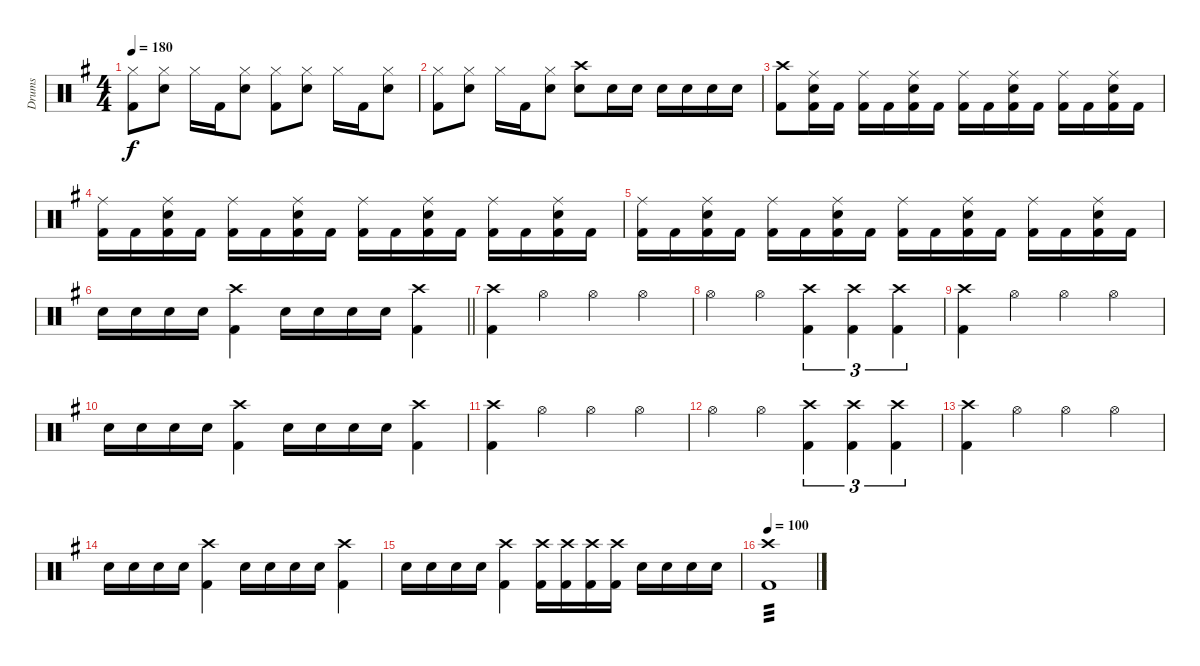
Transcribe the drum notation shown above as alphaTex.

\track ("Drums" "Drums") {instrument percussion}
\staff {score}
\articulation defaults
\ts (4 4)
\tempo 180
\clef neutral
\ks g
("Hi-Hat (closed)" "Kick (hit) 2").8{dy f} ("Hi-Hat (closed)" "Snare (hit) 2").8 "Hi-Hat (closed)".16 "Kick (hit) 2".16 ("Hi-Hat (closed)" "Snare (hit) 2").8 ("Hi-Hat (closed)" "Kick (hit) 2").8 ("Hi-Hat (closed)" "Snare (hit) 2").8 "Hi-Hat (closed)".16 "Kick (hit) 2".16 ("Hi-Hat (closed)" "Snare (hit) 2").8 |
("Hi-Hat (closed)" "Kick (hit) 2").8 ("Hi-Hat (closed)" "Snare (hit) 2").8 "Hi-Hat (closed)".16 "Kick (hit) 2".16 ("Hi-Hat (closed)" "Snare (hit) 2").8 ("Crash high (hit)" "Snare (hit) 2").8 "Snare (hit) 2".16 "Snare (hit) 2".16 "Snare (hit) 2".16 "Snare (hit) 2".16 "Snare (hit) 2".16 "Snare (hit) 2".16 |
("Crash high (hit)" "Kick (hit) 2").8 ("Ride (middle)" "Snare (hit) 2" "Kick (hit) 2").16 "Kick (hit) 2".16 ("Ride (middle)" "Kick (hit) 2").16 "Kick (hit) 2".16 ("Ride (middle)" "Snare (hit) 2" "Kick (hit) 2").16 "Kick (hit) 2".16 ("Ride (middle)" "Kick (hit) 2").16 "Kick (hit) 2".16 ("Ride (middle)" "Snare (hit) 2" "Kick (hit) 2").16 "Kick (hit) 2".16 ("Ride (middle)" "Kick (hit) 2").16 "Kick (hit) 2".16 ("Ride (middle)" "Snare (hit) 2" "Kick (hit) 2").16 "Kick (hit) 2".16 |
("Ride (middle)" "Kick (hit) 2").16 "Kick (hit) 2".16 ("Ride (middle)" "Snare (hit) 2" "Kick (hit) 2").16 "Kick (hit) 2".16 ("Ride (middle)" "Kick (hit) 2").16 "Kick (hit) 2".16 ("Ride (middle)" "Snare (hit) 2" "Kick (hit) 2").16 "Kick (hit) 2".16 ("Ride (middle)" "Kick (hit) 2").16 "Kick (hit) 2".16 ("Ride (middle)" "Snare (hit) 2" "Kick (hit) 2").16 "Kick (hit) 2".16 ("Ride (middle)" "Kick (hit) 2").16 "Kick (hit) 2".16 ("Ride (middle)" "Snare (hit) 2" "Kick (hit) 2").16 "Kick (hit) 2".16 |
("Ride (middle)" "Kick (hit) 2").16 "Kick (hit) 2".16 ("Ride (middle)" "Snare (hit) 2" "Kick (hit) 2").16 "Kick (hit) 2".16 ("Ride (middle)" "Kick (hit) 2").16 "Kick (hit) 2".16 ("Ride (middle)" "Snare (hit) 2" "Kick (hit) 2").16 "Kick (hit) 2".16 ("Ride (middle)" "Kick (hit) 2").16 "Kick (hit) 2".16 ("Ride (middle)" "Snare (hit) 2" "Kick (hit) 2").16 "Kick (hit) 2".16 ("Ride (middle)" "Kick (hit) 2").16 "Kick (hit) 2".16 ("Ride (middle)" "Snare (hit) 2" "Kick (hit) 2").16 "Kick (hit) 2".16 |
\barLineRight lightlight "Snare (hit) 2".16 "Snare (hit) 2".16 "Snare (hit) 2".16 "Snare (hit) 2".16
("Crash high (hit)" "Kick (hit) 2").4 "Snare (hit) 2".16 "Snare (hit) 2".16 "Snare (hit) 2".16 "Snare (hit) 2".16 ("Crash high (hit)" "Kick (hit) 2").4 |
("Crash high (hit)" "Kick (hit) 2").4 "Hi-Hat (open)".4 "Hi-Hat (open)".4 "Hi-Hat (open)".4 |
"Hi-Hat (open)".4 "Hi-Hat (open)".4 ("Crash high (hit)" "Kick (hit) 2").4{tu (3 2)} ("Crash high (hit)" "Kick (hit) 2").4{tu (3 2)} ("Crash high (hit)" "Kick (hit) 2").4{tu (3 2)} |
("Crash high (hit)" "Kick (hit) 2").4 "Hi-Hat (open)".4 "Hi-Hat (open)".4 "Hi-Hat (open)".4 |
"Snare (hit) 2".16 "Snare (hit) 2".16 "Snare (hit) 2".16 "Snare (hit) 2".16 ("Crash high (hit)" "Kick (hit) 2").4 "Snare (hit) 2".16 "Snare (hit) 2".16 "Snare (hit) 2".16 "Snare (hit) 2".16 ("Crash high (hit)" "Kick (hit) 2").4 |
("Crash high (hit)" "Kick (hit) 2").4 "Hi-Hat (open)".4 "Hi-Hat (open)".4 "Hi-Hat (open)".4 |
"Hi-Hat (open)".4 "Hi-Hat (open)".4 ("Crash high (hit)" "Kick (hit) 2").4{tu (3 2)} ("Crash high (hit)" "Kick (hit) 2").4{tu (3 2)} ("Crash high (hit)" "Kick (hit) 2").4{tu (3 2)} |
("Crash high (hit)" "Kick (hit) 2").4 "Hi-Hat (open)".4 "Hi-Hat (open)".4 "Hi-Hat (open)".4 |
"Snare (hit) 2".16 "Snare (hit) 2".16 "Snare (hit) 2".16 "Snare (hit) 2".16 ("Crash high (hit)" "Kick (hit) 2").4 "Snare (hit) 2".16 "Snare (hit) 2".16 "Snare (hit) 2".16 "Snare (hit) 2".16 ("Crash high (hit)" "Kick (hit) 2").4 |
"Snare (hit) 2".16 "Snare (hit) 2".16 "Snare (hit) 2".16 "Snare (hit) 2".16 ("Crash high (hit)" "Kick (hit) 2").4 ("Crash high (hit)" "Kick (hit) 2").16 ("Crash high (hit)" "Kick (hit) 2").16 ("Crash high (hit)" "Kick (hit) 2").16 ("Crash high (hit)" "Kick (hit) 2").16 "Snare (hit) 2".16 "Snare (hit) 2".16 "Snare (hit) 2".16 "Snare (hit) 2".16 |
\tempo 100
("Crash high (hit)" "Kick (hit) 2").1{tp 3}
